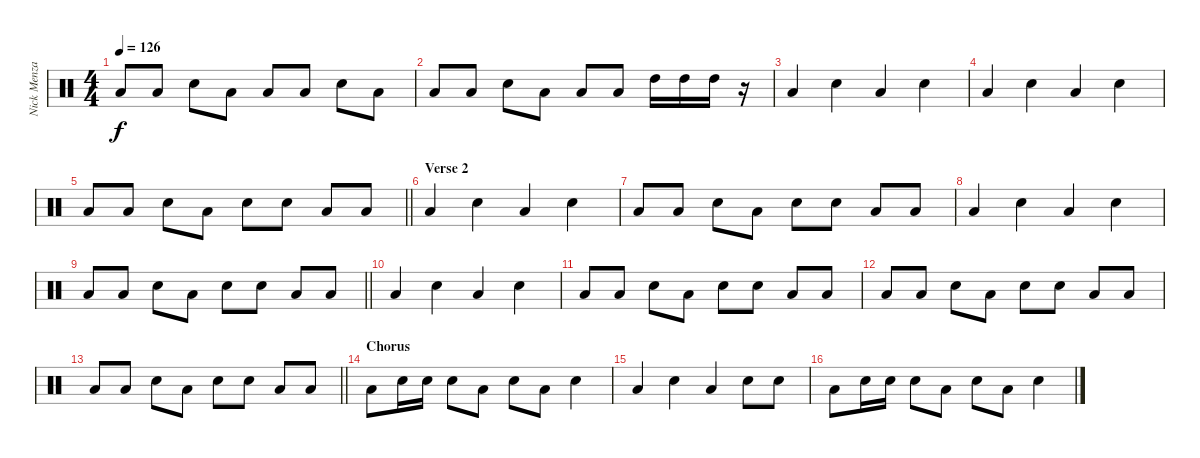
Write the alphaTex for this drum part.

\track ("Nick Menza" "Nick Menza") {instrument percussion}
\staff {score}
\articulation defaults
\ts (4 4)
\tempo 126
\clef neutral
\ks c "Low Tom (hit)".8{dy f} "Low Tom (hit)".8 "Electric Snare (hit)".8 "Low Tom (hit)".8 "Low Tom (hit)".8 "Low Tom (hit)".8 "Electric Snare (hit)".8 "Low Tom (hit)".8
|
"Low Tom (hit)".8 "Low Tom (hit)".8 "Electric Snare (hit)".8 "Low Tom (hit)".8 "Low Tom (hit)".8 "Low Tom (hit)".8 "High Tom (hit)".16 "High Tom (hit)".16 "High Tom (hit)".16 r.16 |
"Low Tom (hit)".4 "Electric Snare (hit)".4 "Low Tom (hit)".4 "Electric Snare (hit)".4 |
"Low Tom (hit)".4 "Electric Snare (hit)".4 "Low Tom (hit)".4 "Electric Snare (hit)".4 |
\barLineRight lightlight "Low Tom (hit)".8 "Low Tom (hit)".8 "Electric Snare (hit)".8 "Low Tom (hit)".8 "Electric Snare (hit)".8 "Electric Snare (hit)".8 "Low Tom (hit)".8 "Low Tom (hit)".8
|
\section ("" "Verse 2")
"Low Tom (hit)".4 "Electric Snare (hit)".4 "Low Tom (hit)".4 "Electric Snare (hit)".4 |
"Low Tom (hit)".8 "Low Tom (hit)".8 "Electric Snare (hit)".8 "Low Tom (hit)".8 "Electric Snare (hit)".8 "Electric Snare (hit)".8 "Low Tom (hit)".8 "Low Tom (hit)".8 |
"Low Tom (hit)".4 "Electric Snare (hit)".4 "Low Tom (hit)".4 "Electric Snare (hit)".4 |
\barLineRight lightlight "Low Tom (hit)".8 "Low Tom (hit)".8 "Electric Snare (hit)".8 "Low Tom (hit)".8 "Electric Snare (hit)".8 "Electric Snare (hit)".8 "Low Tom (hit)".8 "Low Tom (hit)".8
|
"Low Tom (hit)".4 "Electric Snare (hit)".4 "Low Tom (hit)".4 "Electric Snare (hit)".4 |
"Low Tom (hit)".8 "Low Tom (hit)".8 "Electric Snare (hit)".8 "Low Tom (hit)".8 "Electric Snare (hit)".8 "Electric Snare (hit)".8 "Low Tom (hit)".8 "Low Tom (hit)".8 |
"Low Tom (hit)".8 "Low Tom (hit)".8 "Electric Snare (hit)".8 "Low Tom (hit)".8 "Electric Snare (hit)".8 "Electric Snare (hit)".8 "Low Tom (hit)".8 "Low Tom (hit)".8 |
\barLineRight lightlight "Low Tom (hit)".8 "Low Tom (hit)".8 "Electric Snare (hit)".8 "Low Tom (hit)".8 "Electric Snare (hit)".8 "Electric Snare (hit)".8 "Low Tom (hit)".8 "Low Tom (hit)".8
|
\section ("" "Chorus")
"Low Tom (hit)".8 "Electric Snare (hit)".16 "Electric Snare (hit)".16 "Electric Snare (hit)".8 "Low Tom (hit)".8 "Electric Snare (hit)".8 "Low Tom (hit)".8 "Electric Snare (hit)".4 |
"Low Tom (hit)".4 "Electric Snare (hit)".4 "Low Tom (hit)".4 "Electric Snare (hit)".8 "Electric Snare (hit)".8 |
"Low Tom (hit)".8 "Electric Snare (hit)".16 "Electric Snare (hit)".16 "Electric Snare (hit)".8 "Low Tom (hit)".8 "Electric Snare (hit)".8 "Low Tom (hit)".8 "Electric Snare (hit)".4
